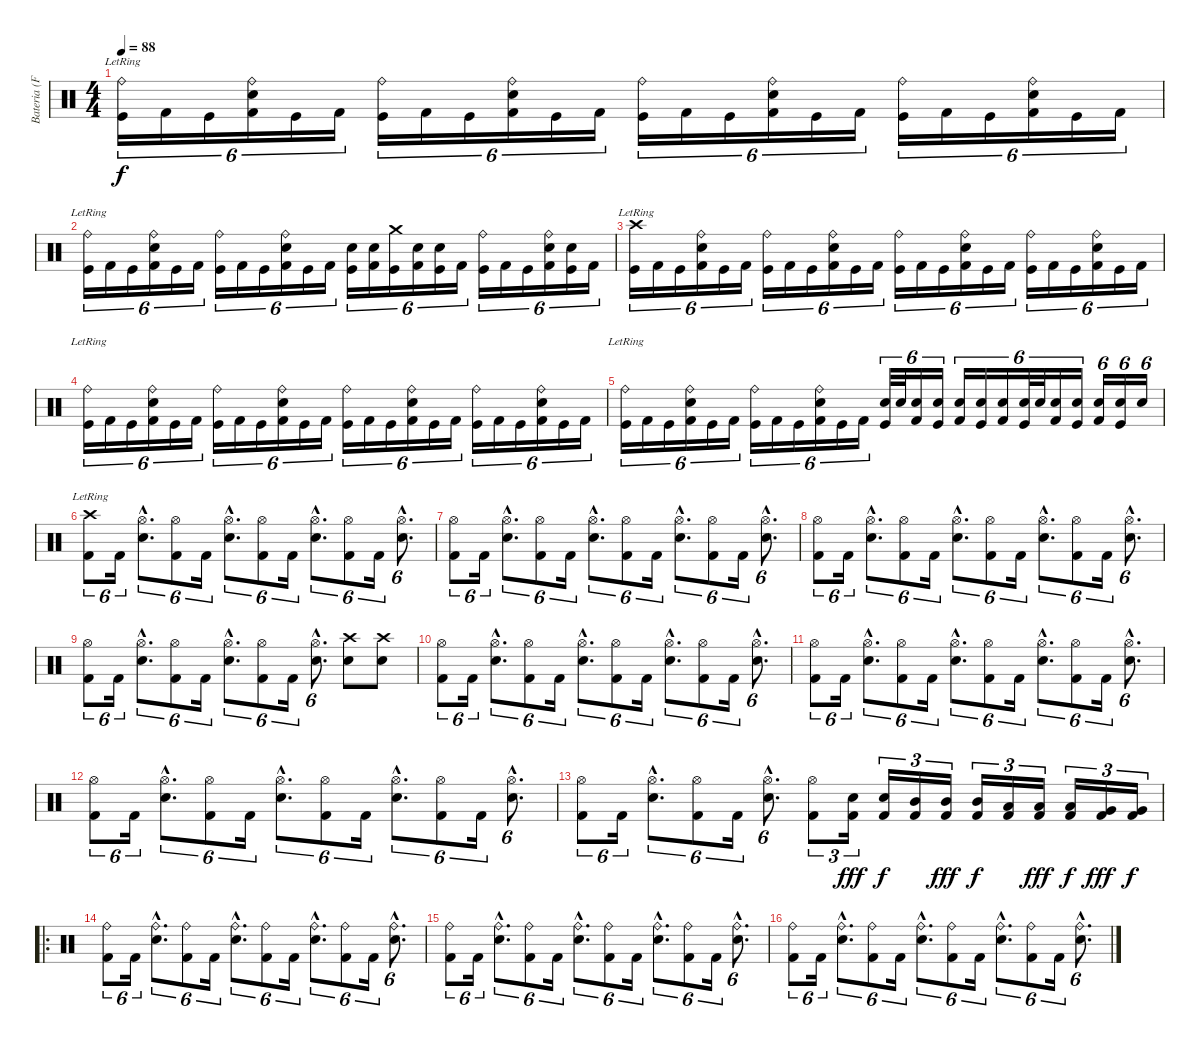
\track ("Bateria (Fernando Scarcella)" "Bateria (F") {instrument percussion}
\staff {score}
\articulation defaults
\ts (4 4)
\tempo 88
\clef neutral
\ks c
("Ride (bell)"{lr} "Kick (hit)").16{tu (6 4) dy f} "Kick (hit) 2".16{tu (6 4)} "Kick (hit)".16{tu (6 4)} ("Ride (bell)" "Snare (hit) 2" "Kick (hit) 2").16{tu (6 4)} "Kick (hit)".16{tu (6 4)} "Kick (hit) 2".16{tu (6 4)} ("Ride (bell)" "Kick (hit)").16{tu (6 4)} "Kick (hit) 2".16{tu (6 4)} "Kick (hit)".16{tu (6 4)} ("Ride (bell)" "Snare (hit) 2" "Kick (hit) 2").16{tu (6 4)} "Kick (hit)".16{tu (6 4)} "Kick (hit) 2".16{tu (6 4)} ("Ride (bell)" "Kick (hit)").16{tu (6 4)} "Kick (hit) 2".16{tu (6 4)} "Kick (hit)".16{tu (6 4)} ("Ride (bell)" "Snare (hit) 2" "Kick (hit) 2").16{tu (6 4)} "Kick (hit)".16{tu (6 4)} "Kick (hit) 2".16{tu (6 4)} ("Ride (bell)" "Kick (hit)").16{tu (6 4)} "Kick (hit) 2".16{tu (6 4)} "Kick (hit)".16{tu (6 4)} ("Ride (bell)" "Snare (hit) 2" "Kick (hit) 2").16{tu (6 4)} "Kick (hit)".16{tu (6 4)} "Kick (hit) 2".16{tu (6 4)} |
("Ride (bell)"{lr} "Kick (hit)").16{tu (6 4)} "Kick (hit) 2".16{tu (6 4)} "Kick (hit)".16{tu (6 4)} ("Ride (bell)" "Snare (hit) 2" "Kick (hit) 2").16{tu (6 4)} "Kick (hit)".16{tu (6 4)} "Kick (hit) 2".16{tu (6 4)} ("Ride (bell)" "Kick (hit)").16{tu (6 4)} "Kick (hit) 2".16{tu (6 4)} "Kick (hit)".16{tu (6 4)} ("Ride (bell)" "Snare (hit) 2" "Kick (hit) 2").16{tu (6 4)} "Kick (hit)".16{tu (6 4)} "Kick (hit) 2".16{tu (6 4)} ("Snare (hit) 2" "Kick (hit)").16{tu (6 4)} ("Snare (hit) 2" "Kick (hit) 2").16{tu (6 4)} ("Crash medium (hit)" "Kick (hit)").16{tu (6 4)} ("Snare (hit) 2" "Kick (hit) 2").16{tu (6 4)} ("Snare (hit) 2" "Kick (hit)").16{tu (6 4)} "Kick (hit) 2".16{tu (6 4)} ("Ride (bell)" "Kick (hit)").16{tu (6 4)} "Kick (hit) 2".16{tu (6 4)} "Kick (hit)".16{tu (6 4)} ("Ride (bell)" "Snare (hit) 2" "Kick (hit) 2").16{tu (6 4)} ("Snare (hit) 2" "Kick (hit)").16{tu (6 4)} "Kick (hit) 2".16{tu (6 4)} |
("Crash high (hit)"{lr} "Kick (hit)").16{tu (6 4)} "Kick (hit) 2".16{tu (6 4)} "Kick (hit)".16{tu (6 4)} ("Ride (bell)" "Snare (hit) 2" "Kick (hit) 2").16{tu (6 4)} "Kick (hit)".16{tu (6 4)} "Kick (hit) 2".16{tu (6 4)} ("Ride (bell)" "Kick (hit)").16{tu (6 4)} "Kick (hit) 2".16{tu (6 4)} "Kick (hit)".16{tu (6 4)} ("Ride (bell)" "Snare (hit) 2" "Kick (hit) 2").16{tu (6 4)} "Kick (hit)".16{tu (6 4)} "Kick (hit) 2".16{tu (6 4)} ("Ride (bell)" "Kick (hit)").16{tu (6 4)} "Kick (hit) 2".16{tu (6 4)} "Kick (hit)".16{tu (6 4)} ("Ride (bell)" "Snare (hit) 2" "Kick (hit) 2").16{tu (6 4)} "Kick (hit)".16{tu (6 4)} "Kick (hit) 2".16{tu (6 4)} ("Ride (bell)" "Kick (hit)").16{tu (6 4)} "Kick (hit) 2".16{tu (6 4)} "Kick (hit)".16{tu (6 4)} ("Ride (bell)" "Snare (hit) 2" "Kick (hit) 2").16{tu (6 4)} "Kick (hit)".16{tu (6 4)} "Kick (hit) 2".16{tu (6 4)} |
("Ride (bell)"{lr} "Kick (hit)").16{tu (6 4)} "Kick (hit) 2".16{tu (6 4)} "Kick (hit)".16{tu (6 4)} ("Ride (bell)" "Snare (hit) 2" "Kick (hit) 2").16{tu (6 4)} "Kick (hit)".16{tu (6 4)} "Kick (hit) 2".16{tu (6 4)} ("Ride (bell)" "Kick (hit)").16{tu (6 4)} "Kick (hit) 2".16{tu (6 4)} "Kick (hit)".16{tu (6 4)} ("Ride (bell)" "Snare (hit) 2" "Kick (hit) 2").16{tu (6 4)} "Kick (hit)".16{tu (6 4)} "Kick (hit) 2".16{tu (6 4)} ("Ride (bell)" "Kick (hit)").16{tu (6 4)} "Kick (hit) 2".16{tu (6 4)} "Kick (hit)".16{tu (6 4)} ("Ride (bell)" "Snare (hit) 2" "Kick (hit) 2").16{tu (6 4)} "Kick (hit)".16{tu (6 4)} "Kick (hit) 2".16{tu (6 4)} ("Ride (bell)" "Kick (hit)").16{tu (6 4)} "Kick (hit) 2".16{tu (6 4)} "Kick (hit)".16{tu (6 4)} ("Ride (bell)" "Snare (hit) 2" "Kick (hit) 2").16{tu (6 4)} "Kick (hit)".16{tu (6 4)} "Kick (hit) 2".16{tu (6 4)} |
("Ride (bell)"{lr} "Kick (hit)").16{tu (6 4)} "Kick (hit) 2".16{tu (6 4)} "Kick (hit)".16{tu (6 4)} ("Ride (bell)" "Snare (hit) 2" "Kick (hit) 2").16{tu (6 4)} "Kick (hit)".16{tu (6 4)} "Kick (hit) 2".16{tu (6 4)} ("Ride (bell)" "Kick (hit)").16{tu (6 4)} "Kick (hit) 2".16{tu (6 4)} "Kick (hit)".16{tu (6 4)} ("Ride (bell)" "Snare (hit) 2" "Kick (hit) 2").16{tu (6 4)} "Kick (hit)".16{tu (6 4)} "Kick (hit) 2".16{tu (6 4)} ("Snare (hit) 2" "Kick (hit)").32{tu (6 4)} "Snare (hit) 2".32{tu (6 4)} ("Snare (hit) 2" "Kick (hit) 2").16{tu (6 4)} ("Snare (hit) 2" "Kick (hit)").16{tu (6 4)} ("Snare (hit) 2" "Kick (hit) 2").16{tu (6 4)} ("Snare (hit) 2" "Kick (hit)").16{tu (6 4)} ("Snare (hit) 2" "Kick (hit) 2").16{tu (6 4)} ("Snare (hit) 2" "Kick (hit)").32{tu (6 4)} "Snare (hit) 2".32{tu (6 4)} ("Snare (hit) 2" "Kick (hit) 2").16{tu (6 4)} ("Snare (hit) 2" "Kick (hit)").16{tu (6 4)} ("Snare (hit) 2" "Kick (hit) 2").16{tu (6 4)} ("Snare (hit) 2" "Kick (hit)").16{tu (6 4)} "Snare (hit) 2".16{tu (6 4)} |
("Crash high (hit)"{lr} "Kick (hit) 2").8{tu (6 4)} "Kick (hit) 2".16{tu (6 4)} ("Hi-Hat (open)"{hac} "Snare (hit) 2"{hac}).8{d tu (6 4)} ("Hi-Hat (open)" "Kick (hit) 2").8{tu (6 4)} "Kick (hit) 2".16{tu (6 4)} ("Hi-Hat (open)"{hac} "Snare (hit) 2"{hac}).8{d tu (6 4)} ("Hi-Hat (open)" "Kick (hit) 2").8{tu (6 4)} "Kick (hit) 2".16{tu (6 4)} ("Hi-Hat (open)"{hac} "Snare (hit) 2"{hac}).8{d tu (6 4)} ("Hi-Hat (open)" "Kick (hit) 2").8{tu (6 4)} "Kick (hit) 2".16{tu (6 4)} ("Hi-Hat (open)"{hac} "Snare (hit) 2"{hac}).8{d tu (6 4)} |
("Hi-Hat (open)" "Kick (hit) 2").8{tu (6 4)} "Kick (hit) 2".16{tu (6 4)} ("Hi-Hat (open)"{hac} "Snare (hit) 2"{hac}).8{d tu (6 4)} ("Hi-Hat (open)" "Kick (hit) 2").8{tu (6 4)} "Kick (hit) 2".16{tu (6 4)} ("Hi-Hat (open)"{hac} "Snare (hit) 2"{hac}).8{d tu (6 4)} ("Hi-Hat (open)" "Kick (hit) 2").8{tu (6 4)} "Kick (hit) 2".16{tu (6 4)} ("Hi-Hat (open)"{hac} "Snare (hit) 2"{hac}).8{d tu (6 4)} ("Hi-Hat (open)" "Kick (hit) 2").8{tu (6 4)} "Kick (hit) 2".16{tu (6 4)} ("Hi-Hat (open)"{hac} "Snare (hit) 2"{hac}).8{d tu (6 4)} |
("Hi-Hat (open)" "Kick (hit) 2").8{tu (6 4)} "Kick (hit) 2".16{tu (6 4)} ("Hi-Hat (open)"{hac} "Snare (hit) 2"{hac}).8{d tu (6 4)} ("Hi-Hat (open)" "Kick (hit) 2").8{tu (6 4)} "Kick (hit) 2".16{tu (6 4)} ("Hi-Hat (open)"{hac} "Snare (hit) 2"{hac}).8{d tu (6 4)} ("Hi-Hat (open)" "Kick (hit) 2").8{tu (6 4)} "Kick (hit) 2".16{tu (6 4)} ("Hi-Hat (open)"{hac} "Snare (hit) 2"{hac}).8{d tu (6 4)} ("Hi-Hat (open)" "Kick (hit) 2").8{tu (6 4)} "Kick (hit) 2".16{tu (6 4)} ("Hi-Hat (open)"{hac} "Snare (hit) 2"{hac}).8{d tu (6 4)} |
("Hi-Hat (open)" "Kick (hit) 2").8{tu (6 4)} "Kick (hit) 2".16{tu (6 4)} ("Hi-Hat (open)"{hac} "Snare (hit) 2"{hac}).8{d tu (6 4)} ("Hi-Hat (open)" "Kick (hit) 2").8{tu (6 4)} "Kick (hit) 2".16{tu (6 4)} ("Hi-Hat (open)"{hac} "Snare (hit) 2"{hac}).8{d tu (6 4)} ("Hi-Hat (open)" "Kick (hit) 2").8{tu (6 4)} "Kick (hit) 2".16{tu (6 4)} ("Hi-Hat (open)"{hac} "Snare (hit) 2"{hac}).8{d tu (6 4)} ("Crash high (hit)" "Snare (hit) 2").8 ("Crash high (hit)" "Snare (hit) 2").8 |
("Hi-Hat (open)" "Kick (hit) 2").8{tu (6 4)} "Kick (hit) 2".16{tu (6 4)} ("Hi-Hat (open)"{hac} "Snare (hit) 2"{hac}).8{d tu (6 4)} ("Hi-Hat (open)" "Kick (hit) 2").8{tu (6 4)} "Kick (hit) 2".16{tu (6 4)} ("Hi-Hat (open)"{hac} "Snare (hit) 2"{hac}).8{d tu (6 4)} ("Hi-Hat (open)" "Kick (hit) 2").8{tu (6 4)} "Kick (hit) 2".16{tu (6 4)} ("Hi-Hat (open)"{hac} "Snare (hit) 2"{hac}).8{d tu (6 4)} ("Hi-Hat (open)" "Kick (hit) 2").8{tu (6 4)} "Kick (hit) 2".16{tu (6 4)} ("Hi-Hat (open)"{hac} "Snare (hit) 2"{hac}).8{d tu (6 4)} |
("Hi-Hat (open)" "Kick (hit) 2").8{tu (6 4)} "Kick (hit) 2".16{tu (6 4)} ("Hi-Hat (open)"{hac} "Snare (hit) 2"{hac}).8{d tu (6 4)} ("Hi-Hat (open)" "Kick (hit) 2").8{tu (6 4)} "Kick (hit) 2".16{tu (6 4)} ("Hi-Hat (open)"{hac} "Snare (hit) 2"{hac}).8{d tu (6 4)} ("Hi-Hat (open)" "Kick (hit) 2").8{tu (6 4)} "Kick (hit) 2".16{tu (6 4)} ("Hi-Hat (open)"{hac} "Snare (hit) 2"{hac}).8{d tu (6 4)} ("Hi-Hat (open)" "Kick (hit) 2").8{tu (6 4)} "Kick (hit) 2".16{tu (6 4)} ("Hi-Hat (open)"{hac} "Snare (hit) 2"{hac}).8{d tu (6 4)} |
("Hi-Hat (open)" "Kick (hit) 2").8{tu (6 4)} "Kick (hit) 2".16{tu (6 4)} ("Hi-Hat (open)"{hac} "Snare (hit) 2"{hac}).8{d tu (6 4)} ("Hi-Hat (open)" "Kick (hit) 2").8{tu (6 4)} "Kick (hit) 2".16{tu (6 4)} ("Hi-Hat (open)"{hac} "Snare (hit) 2"{hac}).8{d tu (6 4)} ("Hi-Hat (open)" "Kick (hit) 2").8{tu (6 4)} "Kick (hit) 2".16{tu (6 4)} ("Hi-Hat (open)"{hac} "Snare (hit) 2"{hac}).8{d tu (6 4)} ("Hi-Hat (open)" "Kick (hit) 2").8{tu (6 4)} "Kick (hit) 2".16{tu (6 4)} ("Hi-Hat (open)"{hac} "Snare (hit) 2"{hac}).8{d tu (6 4)} |
("Hi-Hat (open)" "Kick (hit) 2").8{tu (6 4)} "Kick (hit) 2".16{tu (6 4)} ("Hi-Hat (open)"{hac} "Snare (hit) 2"{hac}).8{d tu (6 4)} ("Hi-Hat (open)" "Kick (hit) 2").8{tu (6 4)} "Kick (hit) 2".16{tu (6 4)} ("Hi-Hat (open)"{hac} "Snare (hit) 2"{hac}).8{d tu (6 4)} ("Hi-Hat (open)" "Kick (hit) 2").8{tu (3 2)} ("Snare (hit) 2" "Kick (hit) 2").16{tu (3 2) dy fff} ("Snare (hit) 2" "Kick (hit) 2").16{tu (3 2) dy f} ("Mid Tom (hit)" "Kick (hit) 2").16{tu (3 2)} ("Mid Tom (hit)" "Kick (hit) 2").16{tu (3 2) dy fff} ("Mid Tom (hit)" "Kick (hit) 2").16{tu (3 2) dy f} ("Low Tom (hit)" "Kick (hit) 2").16{tu (3 2)} ("Low Tom (hit)" "Kick (hit) 2").16{tu (3 2) dy fff} ("Low Tom (hit)" "Kick (hit) 2").16{tu (3 2) dy f} ("Very Low Tom (hit)" "Kick (hit) 2").16{tu (3 2) dy fff} ("Very Low Tom (hit)" "Kick (hit) 2").16{tu (3 2) dy f} |
\ro
("Ride (bell)" "Kick (hit) 2").8{tu (6 4)} "Kick (hit) 2".16{tu (6 4)} ("Ride (bell)"{hac} "Snare (hit) 2"{hac}).8{d tu (6 4)} ("Ride (bell)" "Kick (hit) 2").8{tu (6 4)} "Kick (hit) 2".16{tu (6 4)} ("Ride (bell)"{hac} "Snare (hit) 2"{hac}).8{d tu (6 4)} ("Ride (bell)" "Kick (hit) 2").8{tu (6 4)} "Kick (hit) 2".16{tu (6 4)} ("Ride (bell)"{hac} "Snare (hit) 2"{hac}).8{d tu (6 4)} ("Ride (bell)" "Kick (hit) 2").8{tu (6 4)} "Kick (hit) 2".16{tu (6 4)} ("Ride (bell)"{hac} "Snare (hit) 2"{hac}).8{d tu (6 4)} |
("Ride (bell)" "Kick (hit) 2").8{tu (6 4)} "Kick (hit) 2".16{tu (6 4)} ("Ride (bell)"{hac} "Snare (hit) 2"{hac}).8{d tu (6 4)} ("Ride (bell)" "Kick (hit) 2").8{tu (6 4)} "Kick (hit) 2".16{tu (6 4)} ("Ride (bell)"{hac} "Snare (hit) 2"{hac}).8{d tu (6 4)} ("Ride (bell)" "Kick (hit) 2").8{tu (6 4)} "Kick (hit) 2".16{tu (6 4)} ("Ride (bell)"{hac} "Snare (hit) 2"{hac}).8{d tu (6 4)} ("Ride (bell)" "Kick (hit) 2").8{tu (6 4)} "Kick (hit) 2".16{tu (6 4)} ("Ride (bell)"{hac} "Snare (hit) 2"{hac}).8{d tu (6 4)} |
("Ride (bell)" "Kick (hit) 2").8{tu (6 4)} "Kick (hit) 2".16{tu (6 4)} ("Ride (bell)"{hac} "Snare (hit) 2"{hac}).8{d tu (6 4)} ("Ride (bell)" "Kick (hit) 2").8{tu (6 4)} "Kick (hit) 2".16{tu (6 4)} ("Ride (bell)"{hac} "Snare (hit) 2"{hac}).8{d tu (6 4)} ("Ride (bell)" "Kick (hit) 2").8{tu (6 4)} "Kick (hit) 2".16{tu (6 4)} ("Ride (bell)"{hac} "Snare (hit) 2"{hac}).8{d tu (6 4)} ("Ride (bell)" "Kick (hit) 2").8{tu (6 4)} "Kick (hit) 2".16{tu (6 4)} ("Ride (bell)"{hac} "Snare (hit) 2"{hac}).8{d tu (6 4)}
